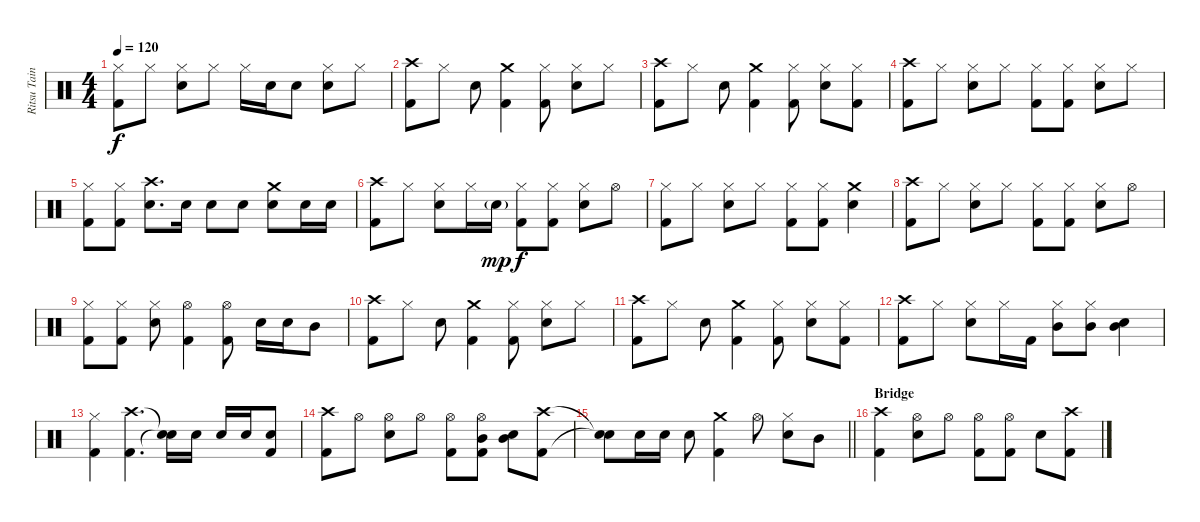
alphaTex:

\track ("Ritsu Tainaka" "Ritsu Tain") {instrument percussion}
\staff {score}
\articulation defaults
\ts (4 4)
\tempo 120
\clef neutral
\ks c
("Hi-Hat (closed)" "Kick (hit) 2").8{dy f} "Hi-Hat (closed)".8 ("Hi-Hat (closed)" "Snare (hit) 2").8 "Hi-Hat (closed)".8 "Hi-Hat (closed)".16 "Snare (hit) 2".16 "Snare (hit) 2".8 ("Hi-Hat (closed)" "Snare (hit) 2").8 "Hi-Hat (closed)".8 |
("Crash high (hit)" "Kick (hit) 2").8 "Hi-Hat (closed)".8 "Snare (hit) 2".8 ("Crash medium (hit)" "Kick (hit) 2").4 ("Hi-Hat (closed)" "Kick (hit) 2").8 ("Hi-Hat (closed)" "Snare (hit) 2").8 "Hi-Hat (closed)".8 |
("Crash high (hit)" "Kick (hit) 2").8 "Hi-Hat (closed)".8 "Snare (hit) 2".8 ("Crash medium (hit)" "Kick (hit) 2").4 ("Hi-Hat (closed)" "Kick (hit) 2").8 ("Hi-Hat (closed)" "Snare (hit) 2").8 ("Hi-Hat (closed)" "Kick (hit) 2").8 |
("Crash high (hit)" "Kick (hit) 2").8 "Hi-Hat (closed)".8 ("Hi-Hat (closed)" "Snare (hit) 2").8 "Hi-Hat (closed)".8 ("Hi-Hat (closed)" "Kick (hit) 2").8 ("Hi-Hat (closed)" "Kick (hit) 2").8 ("Hi-Hat (closed)" "Snare (hit) 2").8 "Hi-Hat (closed)".8 |
("Hi-Hat (closed)" "Kick (hit) 2").8 ("Hi-Hat (closed)" "Kick (hit) 2").8 ("Crash high (hit)" "Snare (hit) 2").8{d} "Snare (hit) 2".16 "Snare (hit) 2".8 "Snare (hit) 2".8 ("Crash medium (hit)" "Snare (hit) 2").8 "Snare (hit) 2".16 "Snare (hit) 2".16 |
("Crash high (hit)" "Kick (hit) 2").8 "Hi-Hat (closed)".8 ("Hi-Hat (closed)" "Snare (hit) 2").8 "Hi-Hat (closed)".16 "Snare (hit) 2"{g}.16{dy mp} ("Hi-Hat (closed)" "Kick (hit) 2").8{dy f} ("Hi-Hat (closed)" "Kick (hit) 2").8 ("Hi-Hat (closed)" "Snare (hit) 2").8 "Hi-Hat (open)".8 |
("Hi-Hat (closed)" "Kick (hit) 2").8 "Hi-Hat (closed)".8 ("Hi-Hat (closed)" "Snare (hit) 2").8 "Hi-Hat (closed)".8 ("Hi-Hat (closed)" "Kick (hit) 2").8 ("Hi-Hat (closed)" "Kick (hit) 2").8 ("Crash medium (hit)" "Snare (hit) 2").4 |
("Crash high (hit)" "Kick (hit) 2").8 "Hi-Hat (closed)".8 ("Hi-Hat (closed)" "Snare (hit) 2").8 "Hi-Hat (closed)".8 ("Hi-Hat (closed)" "Kick (hit) 2").8 ("Hi-Hat (closed)" "Kick (hit) 2").8 ("Hi-Hat (closed)" "Snare (hit) 2").8 "Hi-Hat (open)".8 |
("Hi-Hat (closed)" "Kick (hit) 2").8 ("Hi-Hat (closed)" "Kick (hit) 2").8 ("Hi-Hat (closed)" "Snare (hit) 2").8 ("Hi-Hat (open)" "Kick (hit) 2").4 ("Hi-Hat (open)" "Kick (hit) 2").8 "Snare (hit) 2".16 "Snare (hit) 2".16 "Mid Tom (hit)".8 |
("Crash high (hit)" "Kick (hit) 2").8 "Hi-Hat (closed)".8 "Snare (hit) 2".8 ("Crash medium (hit)" "Kick (hit) 2").4 ("Hi-Hat (closed)" "Kick (hit) 2").8 ("Hi-Hat (closed)" "Snare (hit) 2").8 "Hi-Hat (closed)".8 |
("Crash high (hit)" "Kick (hit) 2").8 "Hi-Hat (closed)".8 "Snare (hit) 2".8 ("Crash medium (hit)" "Kick (hit) 2").4 ("Hi-Hat (closed)" "Kick (hit) 2").8 ("Hi-Hat (closed)" "Snare (hit) 2").8 ("Hi-Hat (closed)" "Kick (hit) 2").8 |
("Crash high (hit)" "Kick (hit) 2").8 "Hi-Hat (closed)".8 ("Hi-Hat (closed)" "Snare (hit) 2").8 "Hi-Hat (closed)".16 "Kick (hit) 2".16 ("Mid Tom (hit)" "Hi-Hat (closed)").8 ("Mid Tom (hit)" "Hi-Hat (closed)").8 ("Mid Tom (hit)" "Snare (hit) 2").4 |
("Hi-Hat (closed)" "Kick (hit) 2").4 ("Crash high (hit)" "Kick (hit) 2").4{d} ("Snare (hit)"{t} "Snare (hit)"{t}).16 "Snare (hit) 2".16 "Snare (hit) 2".16 "Snare (hit) 2".16 ("Snare (hit) 2" "Kick (hit) 2").8 |
("Crash high (hit)" "Kick (hit) 2").8 "Hi-Hat (open)".8 ("Hi-Hat (open)" "Snare (hit) 2").8 "Hi-Hat (open)".8 ("Hi-Hat (open)" "Kick (hit) 2").8 ("Mid Tom (hit)" "Hi-Hat (open)" "Kick (hit) 2").8 ("Mid Tom (hit)" "Snare (hit) 2").8 ("Crash high (hit)" "Kick (hit) 2").8 |
\barLineRight lightlight
("Snare (hit)"{t} "Snare (hit)"{t}).8 "Snare (hit) 2".16 "Snare (hit) 2".16 "Snare (hit) 2".8 ("Crash medium (hit)" "Kick (hit) 2").4 "Hi-Hat (open)".8 ("Hi-Hat (closed)" "Snare (hit) 2").8 "Mid Tom (hit)".8 |
\section ("" "Bridge")
("Crash high (hit)" "Kick (hit) 2").4 ("Hi-Hat (open)" "Snare (hit) 2").8 "Hi-Hat (open)".8 ("Hi-Hat (open)" "Kick (hit) 2").8 ("Hi-Hat (open)" "Kick (hit) 2").8 "Snare (hit) 2".8 ("Crash high (hit)" "Kick (hit) 2").8
